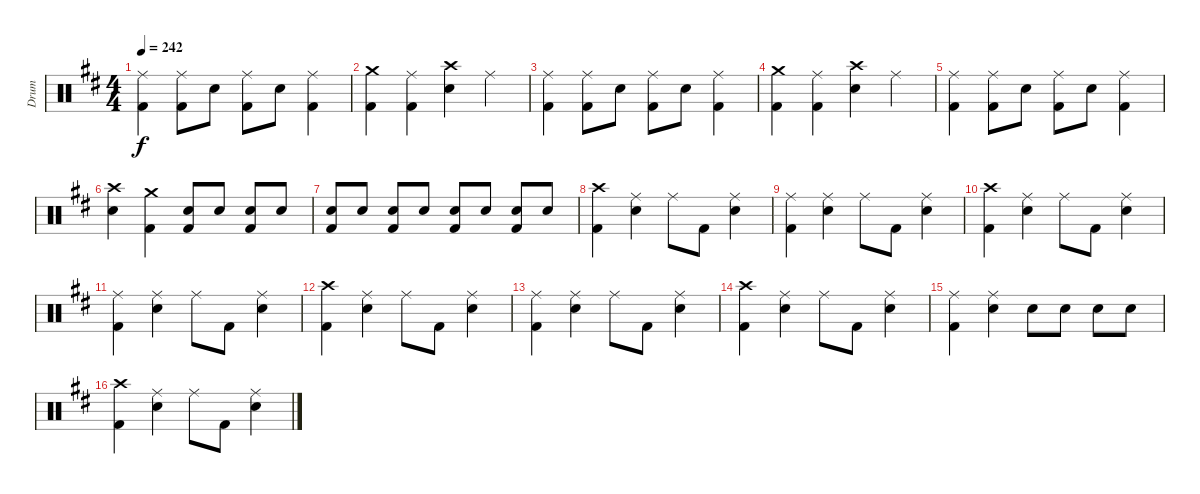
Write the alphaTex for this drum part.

\track ("Drum" "Drum") {instrument percussion}
\staff {score}
\articulation defaults
\ts (4 4)
\tempo 242
\clef neutral
\ks d
("Ride (middle)" "Kick (hit) 2").4{dy f} ("Ride (middle)" "Kick (hit) 2").8 "Snare (hit) 2".8 ("Ride (middle)" "Kick (hit) 2").8 "Snare (hit) 2".8 ("Ride (middle)" "Kick (hit) 2").4 |
("Crash medium (hit)" "Kick (hit) 2").4 ("Ride (middle)" "Kick (hit) 2").4 ("Crash high (hit)" "Snare (hit) 2").4 "Ride (middle)".4 |
("Ride (middle)" "Kick (hit) 2").4 ("Ride (middle)" "Kick (hit) 2").8 "Snare (hit) 2".8 ("Ride (middle)" "Kick (hit) 2").8 "Snare (hit) 2".8 ("Ride (middle)" "Kick (hit) 2").4 |
("Crash medium (hit)" "Kick (hit) 2").4 ("Ride (middle)" "Kick (hit) 2").4 ("Crash high (hit)" "Snare (hit) 2").4 "Ride (middle)".4 |
("Ride (middle)" "Kick (hit) 2").4 ("Ride (middle)" "Kick (hit) 2").8 "Snare (hit) 2".8 ("Ride (middle)" "Kick (hit) 2").8 "Snare (hit) 2".8 ("Ride (middle)" "Kick (hit) 2").4 |
("Crash high (hit)" "Snare (hit) 2").4 ("Crash medium (hit)" "Kick (hit) 2").4 ("Snare (hit) 2" "Kick (hit) 2").8 "Snare (hit) 2".8 ("Snare (hit) 2" "Kick (hit) 2").8 "Snare (hit) 2".8 |
("Snare (hit) 2" "Kick (hit) 2").8 "Snare (hit) 2".8 ("Snare (hit) 2" "Kick (hit) 2").8 "Snare (hit) 2".8 ("Snare (hit) 2" "Kick (hit) 2").8 "Snare (hit) 2".8 ("Snare (hit) 2" "Kick (hit) 2").8 "Snare (hit) 2".8 |
("Crash high (hit)" "Kick (hit) 2").4 ("Ride (middle)" "Snare (hit) 2").4 "Ride (middle)".8 "Kick (hit) 2".8 ("Ride (middle)" "Snare (hit) 2").4 |
("Ride (middle)" "Kick (hit) 2").4 ("Ride (middle)" "Snare (hit) 2").4 "Ride (middle)".8 "Kick (hit) 2".8 ("Ride (middle)" "Snare (hit) 2").4 |
("Crash high (hit)" "Kick (hit) 2").4 ("Ride (middle)" "Snare (hit) 2").4 "Ride (middle)".8 "Kick (hit) 2".8 ("Ride (middle)" "Snare (hit) 2").4 |
("Ride (middle)" "Kick (hit) 2").4 ("Ride (middle)" "Snare (hit) 2").4 "Ride (middle)".8 "Kick (hit) 2".8 ("Ride (middle)" "Snare (hit) 2").4 |
("Crash high (hit)" "Kick (hit) 2").4 ("Ride (middle)" "Snare (hit) 2").4 "Ride (middle)".8 "Kick (hit) 2".8 ("Ride (middle)" "Snare (hit) 2").4 |
("Ride (middle)" "Kick (hit) 2").4 ("Ride (middle)" "Snare (hit) 2").4 "Ride (middle)".8 "Kick (hit) 2".8 ("Ride (middle)" "Snare (hit) 2").4 |
("Crash high (hit)" "Kick (hit) 2").4 ("Ride (middle)" "Snare (hit) 2").4 "Ride (middle)".8 "Kick (hit) 2".8 ("Ride (middle)" "Snare (hit) 2").4 |
("Ride (middle)" "Kick (hit) 2").4 ("Ride (middle)" "Snare (hit) 2").4 "Snare (hit) 2".8 "Snare (hit) 2".8 "Snare (hit) 2".8 "Snare (hit) 2".8 |
("Crash high (hit)" "Kick (hit) 2").4 ("Ride (middle)" "Snare (hit) 2").4 "Ride (middle)".8 "Kick (hit) 2".8 ("Ride (middle)" "Snare (hit) 2").4
